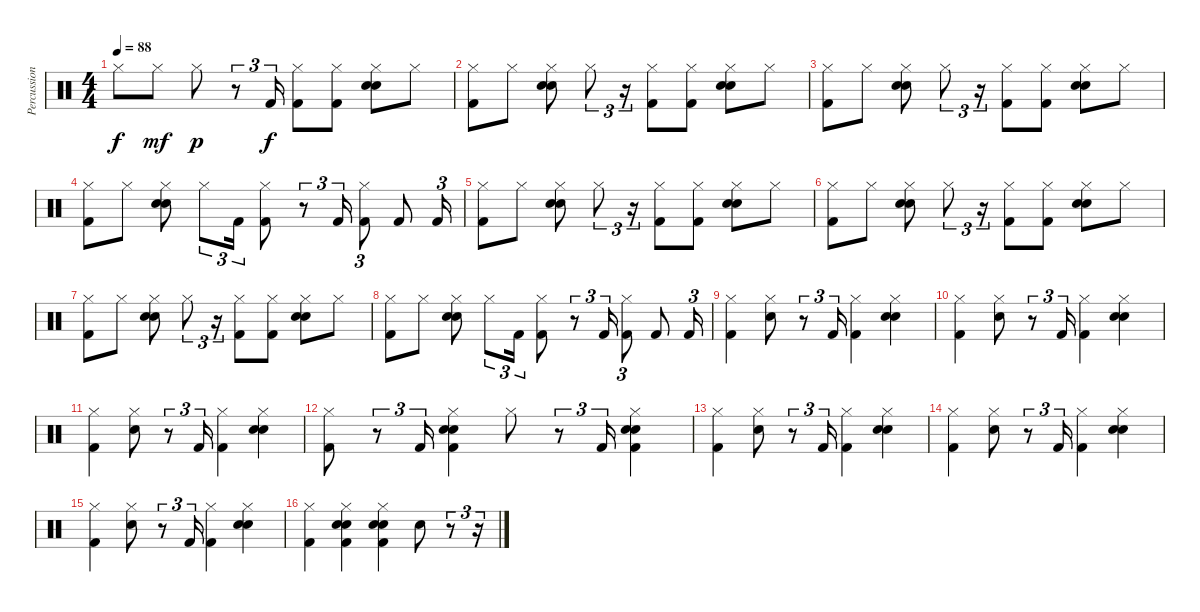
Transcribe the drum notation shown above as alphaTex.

\track ("Percussion" "Percussion") {instrument percussion}
\staff {score}
\articulation defaults
\ts (4 4)
\tempo 88
\clef neutral
\ks c "Hi-Hat (closed)".8{dy f} "Hi-Hat (closed)".8{dy mf} "Hi-Hat (closed)".8{dy p}
r.8{tu (3 2)} "Kick (hit) 2".16{tu (3 2) dy f} ("Hi-Hat (closed)" "Kick (hit) 2").8 ("Hi-Hat (closed)" "Kick (hit) 2").8 ("Hi-Hat (closed)" "Electric Snare (hit)" "Hand Clap (hit)").8 "Hi-Hat (closed)".8 |
("Hi-Hat (closed)" "Kick (hit) 2").8 "Hi-Hat (closed)".8 ("Hi-Hat (closed)" "Electric Snare (hit)" "Hand Clap (hit)").8 "Hi-Hat (closed)".8{tu (3 2)} r.16{tu (3 2)} ("Hi-Hat (closed)" "Kick (hit) 2").8 ("Hi-Hat (closed)" "Kick (hit) 2").8 ("Hi-Hat (closed)" "Electric Snare (hit)" "Hand Clap (hit)").8 "Hi-Hat (closed)".8 |
("Hi-Hat (closed)" "Kick (hit) 2").8 "Hi-Hat (closed)".8 ("Hi-Hat (closed)" "Electric Snare (hit)" "Hand Clap (hit)").8 "Hi-Hat (closed)".8{tu (3 2)} r.16{tu (3 2)} ("Hi-Hat (closed)" "Kick (hit) 2").8 ("Hi-Hat (closed)" "Kick (hit) 2").8 ("Hi-Hat (closed)" "Electric Snare (hit)" "Hand Clap (hit)").8 "Hi-Hat (closed)".8 |
("Hi-Hat (closed)" "Kick (hit) 2").8 "Hi-Hat (closed)".8 ("Hi-Hat (closed)" "Electric Snare (hit)" "Hand Clap (hit)").8 "Hi-Hat (closed)".8{tu (3 2)} "Kick (hit) 2".16{tu (3 2)} ("Hi-Hat (closed)" "Kick (hit) 2").8 r.8{tu (3 2)} "Kick (hit) 2".16{tu (3 2)} ("Hi-Hat (closed)" "Kick (hit) 2").8{tu (3 2)} "Kick (hit) 2".8 "Kick (hit) 2".16{tu (3 2)} |
("Hi-Hat (closed)" "Kick (hit) 2").8 "Hi-Hat (closed)".8 ("Hi-Hat (closed)" "Electric Snare (hit)" "Hand Clap (hit)").8 "Hi-Hat (closed)".8{tu (3 2)} r.16{tu (3 2)} ("Hi-Hat (closed)" "Kick (hit) 2").8 ("Hi-Hat (closed)" "Kick (hit) 2").8 ("Hi-Hat (closed)" "Electric Snare (hit)" "Hand Clap (hit)").8 "Hi-Hat (closed)".8 |
("Hi-Hat (closed)" "Kick (hit) 2").8 "Hi-Hat (closed)".8 ("Hi-Hat (closed)" "Electric Snare (hit)" "Hand Clap (hit)").8 "Hi-Hat (closed)".8{tu (3 2)} r.16{tu (3 2)} ("Hi-Hat (closed)" "Kick (hit) 2").8 ("Hi-Hat (closed)" "Kick (hit) 2").8 ("Hi-Hat (closed)" "Electric Snare (hit)" "Hand Clap (hit)").8 "Hi-Hat (closed)".8 |
("Hi-Hat (closed)" "Kick (hit) 2").8 "Hi-Hat (closed)".8 ("Hi-Hat (closed)" "Electric Snare (hit)" "Hand Clap (hit)").8 "Hi-Hat (closed)".8{tu (3 2)} r.16{tu (3 2)} ("Hi-Hat (closed)" "Kick (hit) 2").8 ("Hi-Hat (closed)" "Kick (hit) 2").8 ("Hi-Hat (closed)" "Electric Snare (hit)" "Hand Clap (hit)").8 "Hi-Hat (closed)".8 |
("Hi-Hat (closed)" "Kick (hit) 2").8 "Hi-Hat (closed)".8 ("Hi-Hat (closed)" "Electric Snare (hit)" "Hand Clap (hit)").8 "Hi-Hat (closed)".8{tu (3 2)} "Kick (hit) 2".16{tu (3 2)} ("Hi-Hat (closed)" "Kick (hit) 2").8 r.8{tu (3 2)} "Kick (hit) 2".16{tu (3 2)} ("Hi-Hat (closed)" "Kick (hit) 2").8{tu (3 2)} "Kick (hit) 2".8 "Kick (hit) 2".16{tu (3 2)} |
("Hi-Hat (closed)" "Kick (hit) 2").4 ("Hi-Hat (closed)" "Electric Snare (hit)").8 r.8{tu (3 2)} "Kick (hit) 2".16{tu (3 2)} ("Hi-Hat (closed)" "Kick (hit) 2").4 ("Hi-Hat (closed)" "Electric Snare (hit)" "Hand Clap (hit)").4 |
("Hi-Hat (closed)" "Kick (hit) 2").4 ("Hi-Hat (closed)" "Electric Snare (hit)").8 r.8{tu (3 2)} "Kick (hit) 2".16{tu (3 2)} ("Hi-Hat (closed)" "Kick (hit) 2").4 ("Hi-Hat (closed)" "Electric Snare (hit)" "Hand Clap (hit)").4 |
("Hi-Hat (closed)" "Kick (hit) 2").4 ("Hi-Hat (closed)" "Electric Snare (hit)").8 r.8{tu (3 2)} "Kick (hit) 2".16{tu (3 2)} ("Hi-Hat (closed)" "Kick (hit) 2").4 ("Hi-Hat (closed)" "Electric Snare (hit)" "Hand Clap (hit)").4 |
("Hi-Hat (closed)" "Kick (hit) 2").8 r.8{tu (3 2)} "Kick (hit) 2".16{tu (3 2)} ("Hi-Hat (closed)" "Electric Snare (hit)" "Hand Clap (hit)" "Kick (hit) 2").4 "Hi-Hat (closed)".8 r.8{tu (3 2)} "Kick (hit) 2".16{tu (3 2)} ("Hi-Hat (closed)" "Electric Snare (hit)" "Hand Clap (hit)" "Kick (hit) 2").4 |
("Hi-Hat (closed)" "Kick (hit) 2").4 ("Hi-Hat (closed)" "Electric Snare (hit)").8 r.8{tu (3 2)} "Kick (hit) 2".16{tu (3 2)} ("Hi-Hat (closed)" "Kick (hit) 2").4 ("Hi-Hat (closed)" "Electric Snare (hit)" "Hand Clap (hit)").4 |
("Hi-Hat (closed)" "Kick (hit) 2").4 ("Hi-Hat (closed)" "Electric Snare (hit)").8 r.8{tu (3 2)} "Kick (hit) 2".16{tu (3 2)} ("Hi-Hat (closed)" "Kick (hit) 2").4 ("Hi-Hat (closed)" "Electric Snare (hit)" "Hand Clap (hit)").4 |
("Hi-Hat (closed)" "Kick (hit) 2").4 ("Hi-Hat (closed)" "Electric Snare (hit)").8 r.8{tu (3 2)} "Kick (hit) 2".16{tu (3 2)} ("Hi-Hat (closed)" "Kick (hit) 2").4 ("Hi-Hat (closed)" "Electric Snare (hit)" "Hand Clap (hit)").4 |
("Hi-Hat (closed)" "Kick (hit) 2").4 ("Hi-Hat (closed)" "Electric Snare (hit)" "Hand Clap (hit)" "Kick (hit) 2").4 ("Hi-Hat (closed)" "Electric Snare (hit)" "Hand Clap (hit)" "Kick (hit) 2").4 "Electric Snare (hit)".8 r.8{tu (3 2)} r.16{tu (3 2)}
